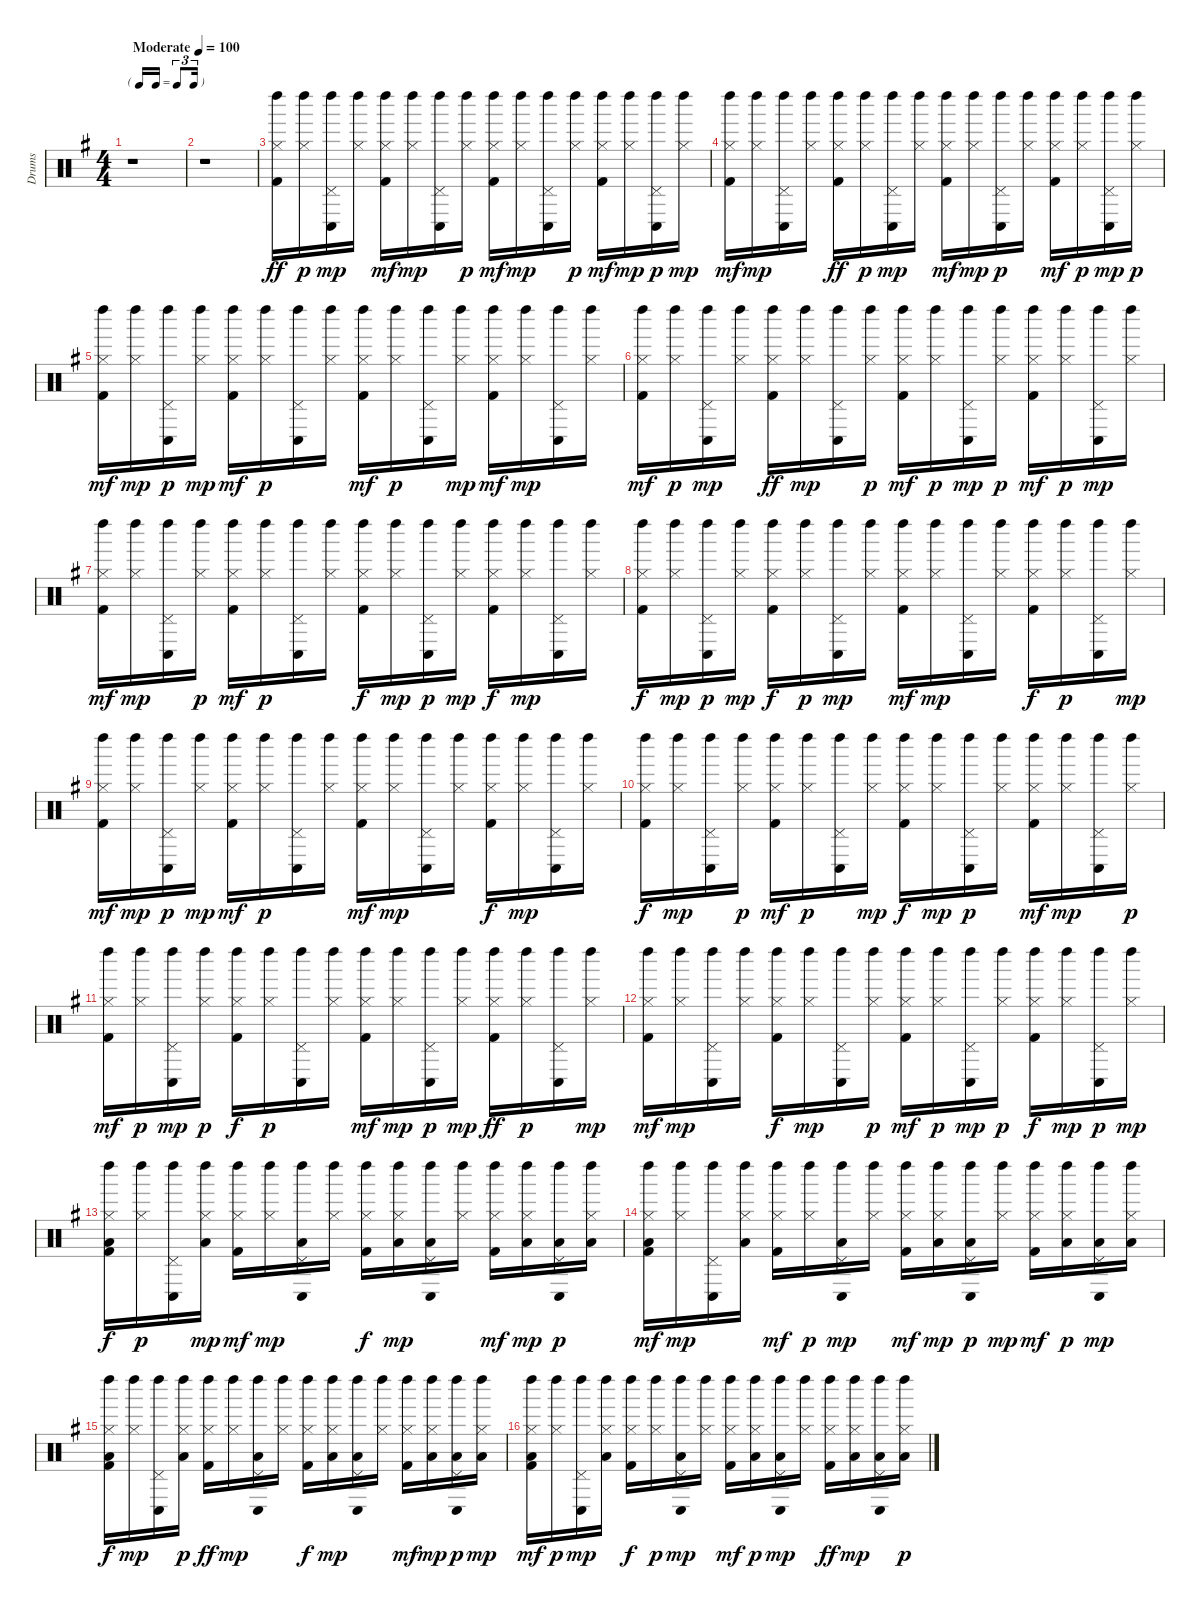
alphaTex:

\track ("Drums" "Drums") {instrument percussion}
\staff {score}
\articulation defaults
\ts (4 4)
\tf triplet16th
\tempo (100 "Moderate")
\clef neutral
\ks g
r.1{dy ff} |
r.1 |
("Kick (hit) 2" "Hi-Hat (closed)" "Left Maraca (hit)").16 ("Hi-Hat (closed)" "Left Maraca (hit)").16{dy p} ("Pedal Hi-Hat (hit)" "Conga low (hit)" "Left Maraca (hit)").16{dy mp} ("Hi-Hat (closed)" "Left Maraca (hit)").16 ("Kick (hit) 2" "Hi-Hat (closed)" "Left Maraca (hit)").16{dy mf} ("Hi-Hat (closed)" "Left Maraca (hit)").16{dy mp} ("Pedal Hi-Hat (hit)" "Conga low (hit)" "Left Maraca (hit)").16 ("Hi-Hat (closed)" "Left Maraca (hit)").16{dy p} ("Kick (hit) 2" "Hi-Hat (closed)" "Left Maraca (hit)").16{dy mf} ("Hi-Hat (closed)" "Left Maraca (hit)").16{dy mp} ("Pedal Hi-Hat (hit)" "Conga low (hit)" "Left Maraca (hit)").16 ("Hi-Hat (closed)" "Left Maraca (hit)").16{dy p} ("Kick (hit) 2" "Hi-Hat (closed)" "Left Maraca (hit)").16{dy mf} ("Hi-Hat (closed)" "Left Maraca (hit)").16{dy mp} ("Pedal Hi-Hat (hit)" "Conga low (hit)" "Left Maraca (hit)").16{dy p} ("Hi-Hat (closed)" "Left Maraca (hit)").16{dy mp} |
("Kick (hit) 2" "Hi-Hat (closed)" "Left Maraca (hit)").16{dy mf} ("Hi-Hat (closed)" "Left Maraca (hit)").16{dy mp} ("Pedal Hi-Hat (hit)" "Conga low (hit)" "Left Maraca (hit)").16 ("Hi-Hat (closed)" "Left Maraca (hit)").16 ("Kick (hit) 2" "Hi-Hat (closed)" "Left Maraca (hit)").16{dy ff} ("Hi-Hat (closed)" "Left Maraca (hit)").16{dy p} ("Pedal Hi-Hat (hit)" "Conga low (hit)" "Left Maraca (hit)").16{dy mp} ("Hi-Hat (closed)" "Left Maraca (hit)").16 ("Kick (hit) 2" "Hi-Hat (closed)" "Left Maraca (hit)").16{dy mf} ("Hi-Hat (closed)" "Left Maraca (hit)").16{dy mp} ("Pedal Hi-Hat (hit)" "Conga low (hit)" "Left Maraca (hit)").16{dy p} ("Hi-Hat (closed)" "Left Maraca (hit)").16 ("Kick (hit) 2" "Hi-Hat (closed)" "Left Maraca (hit)").16{dy mf} ("Hi-Hat (closed)" "Left Maraca (hit)").16{dy p} ("Pedal Hi-Hat (hit)" "Conga low (hit)" "Left Maraca (hit)").16{dy mp} ("Hi-Hat (closed)" "Left Maraca (hit)").16{dy p} |
("Kick (hit) 2" "Hi-Hat (closed)" "Left Maraca (hit)").16{dy mf} ("Hi-Hat (closed)" "Left Maraca (hit)").16{dy mp} ("Pedal Hi-Hat (hit)" "Conga low (hit)" "Left Maraca (hit)").16{dy p} ("Hi-Hat (closed)" "Left Maraca (hit)").16{dy mp} ("Kick (hit) 2" "Hi-Hat (closed)" "Left Maraca (hit)").16{dy mf} ("Hi-Hat (closed)" "Left Maraca (hit)").16{dy p} ("Pedal Hi-Hat (hit)" "Conga low (hit)" "Left Maraca (hit)").16 ("Hi-Hat (closed)" "Left Maraca (hit)").16 ("Kick (hit) 2" "Hi-Hat (closed)" "Left Maraca (hit)").16{dy mf} ("Hi-Hat (closed)" "Left Maraca (hit)").16{dy p} ("Pedal Hi-Hat (hit)" "Conga low (hit)" "Left Maraca (hit)").16 ("Hi-Hat (closed)" "Left Maraca (hit)").16{dy mp} ("Kick (hit) 2" "Hi-Hat (closed)" "Left Maraca (hit)").16{dy mf} ("Hi-Hat (closed)" "Left Maraca (hit)").16{dy mp} ("Pedal Hi-Hat (hit)" "Conga low (hit)" "Left Maraca (hit)").16 ("Hi-Hat (closed)" "Left Maraca (hit)").16 |
("Kick (hit) 2" "Hi-Hat (closed)" "Left Maraca (hit)").16{dy mf} ("Hi-Hat (closed)" "Left Maraca (hit)").16{dy p} ("Pedal Hi-Hat (hit)" "Conga low (hit)" "Left Maraca (hit)").16{dy mp} ("Hi-Hat (closed)" "Left Maraca (hit)").16 ("Kick (hit) 2" "Hi-Hat (closed)" "Left Maraca (hit)").16{dy ff} ("Hi-Hat (closed)" "Left Maraca (hit)").16{dy mp} ("Pedal Hi-Hat (hit)" "Conga low (hit)" "Left Maraca (hit)").16 ("Hi-Hat (closed)" "Left Maraca (hit)").16{dy p} ("Kick (hit) 2" "Hi-Hat (closed)" "Left Maraca (hit)").16{dy mf} ("Hi-Hat (closed)" "Left Maraca (hit)").16{dy p} ("Pedal Hi-Hat (hit)" "Conga low (hit)" "Left Maraca (hit)").16{dy mp} ("Hi-Hat (closed)" "Left Maraca (hit)").16{dy p} ("Kick (hit) 2" "Hi-Hat (closed)" "Left Maraca (hit)").16{dy mf} ("Hi-Hat (closed)" "Left Maraca (hit)").16{dy p} ("Pedal Hi-Hat (hit)" "Conga low (hit)" "Left Maraca (hit)").16{dy mp} ("Hi-Hat (closed)" "Left Maraca (hit)").16 |
("Kick (hit) 2" "Hi-Hat (closed)" "Left Maraca (hit)").16{dy mf} ("Hi-Hat (closed)" "Left Maraca (hit)").16{dy mp} ("Pedal Hi-Hat (hit)" "Conga low (hit)" "Left Maraca (hit)").16 ("Hi-Hat (closed)" "Left Maraca (hit)").16{dy p} ("Kick (hit) 2" "Hi-Hat (closed)" "Left Maraca (hit)").16{dy mf} ("Hi-Hat (closed)" "Left Maraca (hit)").16{dy p} ("Pedal Hi-Hat (hit)" "Conga low (hit)" "Left Maraca (hit)").16 ("Hi-Hat (closed)" "Left Maraca (hit)").16 ("Kick (hit) 2" "Hi-Hat (closed)" "Left Maraca (hit)").16{dy f} ("Hi-Hat (closed)" "Left Maraca (hit)").16{dy mp} ("Pedal Hi-Hat (hit)" "Conga low (hit)" "Left Maraca (hit)").16{dy p} ("Hi-Hat (closed)" "Left Maraca (hit)").16{dy mp} ("Kick (hit) 2" "Hi-Hat (closed)" "Left Maraca (hit)").16{dy f} ("Hi-Hat (closed)" "Left Maraca (hit)").16{dy mp} ("Pedal Hi-Hat (hit)" "Conga low (hit)" "Left Maraca (hit)").16 ("Hi-Hat (closed)" "Left Maraca (hit)").16 |
("Kick (hit) 2" "Hi-Hat (closed)" "Left Maraca (hit)").16{dy f} ("Hi-Hat (closed)" "Left Maraca (hit)").16{dy mp} ("Pedal Hi-Hat (hit)" "Conga low (hit)" "Left Maraca (hit)").16{dy p} ("Hi-Hat (closed)" "Left Maraca (hit)").16{dy mp} ("Kick (hit) 2" "Hi-Hat (closed)" "Left Maraca (hit)").16{dy f} ("Hi-Hat (closed)" "Left Maraca (hit)").16{dy p} ("Pedal Hi-Hat (hit)" "Conga low (hit)" "Left Maraca (hit)").16{dy mp} ("Hi-Hat (closed)" "Left Maraca (hit)").16 ("Kick (hit) 2" "Hi-Hat (closed)" "Left Maraca (hit)").16{dy mf} ("Hi-Hat (closed)" "Left Maraca (hit)").16{dy mp} ("Pedal Hi-Hat (hit)" "Conga low (hit)" "Left Maraca (hit)").16 ("Hi-Hat (closed)" "Left Maraca (hit)").16 ("Kick (hit) 2" "Hi-Hat (closed)" "Left Maraca (hit)").16{dy f} ("Hi-Hat (closed)" "Left Maraca (hit)").16{dy p} ("Pedal Hi-Hat (hit)" "Conga low (hit)" "Left Maraca (hit)").16 ("Hi-Hat (closed)" "Left Maraca (hit)").16{dy mp} |
("Kick (hit) 2" "Hi-Hat (closed)" "Left Maraca (hit)").16{dy mf} ("Hi-Hat (closed)" "Left Maraca (hit)").16{dy mp} ("Pedal Hi-Hat (hit)" "Conga low (hit)" "Left Maraca (hit)").16{dy p} ("Hi-Hat (closed)" "Left Maraca (hit)").16{dy mp} ("Kick (hit) 2" "Hi-Hat (closed)" "Left Maraca (hit)").16{dy mf} ("Hi-Hat (closed)" "Left Maraca (hit)").16{dy p} ("Pedal Hi-Hat (hit)" "Conga low (hit)" "Left Maraca (hit)").16 ("Hi-Hat (closed)" "Left Maraca (hit)").16 ("Kick (hit) 2" "Hi-Hat (closed)" "Left Maraca (hit)").16{dy mf} ("Hi-Hat (closed)" "Left Maraca (hit)").16{dy mp} ("Pedal Hi-Hat (hit)" "Conga low (hit)" "Left Maraca (hit)").16 ("Hi-Hat (closed)" "Left Maraca (hit)").16 ("Kick (hit) 2" "Hi-Hat (closed)" "Left Maraca (hit)").16{dy f} ("Hi-Hat (closed)" "Left Maraca (hit)").16{dy mp} ("Pedal Hi-Hat (hit)" "Conga low (hit)" "Left Maraca (hit)").16 ("Hi-Hat (closed)" "Left Maraca (hit)").16 |
("Kick (hit) 2" "Hi-Hat (closed)" "Left Maraca (hit)").16{dy f} ("Hi-Hat (closed)" "Left Maraca (hit)").16{dy mp} ("Pedal Hi-Hat (hit)" "Conga low (hit)" "Left Maraca (hit)").16 ("Hi-Hat (closed)" "Left Maraca (hit)").16{dy p} ("Kick (hit) 2" "Hi-Hat (closed)" "Left Maraca (hit)").16{dy mf} ("Hi-Hat (closed)" "Left Maraca (hit)").16{dy p} ("Pedal Hi-Hat (hit)" "Conga low (hit)" "Left Maraca (hit)").16 ("Hi-Hat (closed)" "Left Maraca (hit)").16{dy mp} ("Kick (hit) 2" "Hi-Hat (closed)" "Left Maraca (hit)").16{dy f} ("Hi-Hat (closed)" "Left Maraca (hit)").16{dy mp} ("Pedal Hi-Hat (hit)" "Conga low (hit)" "Left Maraca (hit)").16{dy p} ("Hi-Hat (closed)" "Left Maraca (hit)").16 ("Kick (hit) 2" "Hi-Hat (closed)" "Left Maraca (hit)").16{dy mf} ("Hi-Hat (closed)" "Left Maraca (hit)").16{dy mp} ("Pedal Hi-Hat (hit)" "Conga low (hit)" "Left Maraca (hit)").16 ("Hi-Hat (closed)" "Left Maraca (hit)").16{dy p} |
("Kick (hit) 2" "Hi-Hat (closed)" "Left Maraca (hit)").16{dy mf} ("Hi-Hat (closed)" "Left Maraca (hit)").16{dy p} ("Pedal Hi-Hat (hit)" "Conga low (hit)" "Left Maraca (hit)").16{dy mp} ("Hi-Hat (closed)" "Left Maraca (hit)").16{dy p} ("Kick (hit) 2" "Hi-Hat (closed)" "Left Maraca (hit)").16{dy f} ("Hi-Hat (closed)" "Left Maraca (hit)").16{dy p} ("Pedal Hi-Hat (hit)" "Conga low (hit)" "Left Maraca (hit)").16 ("Hi-Hat (closed)" "Left Maraca (hit)").16 ("Kick (hit) 2" "Hi-Hat (closed)" "Left Maraca (hit)").16{dy mf} ("Hi-Hat (closed)" "Left Maraca (hit)").16{dy mp} ("Pedal Hi-Hat (hit)" "Conga low (hit)" "Left Maraca (hit)").16{dy p} ("Hi-Hat (closed)" "Left Maraca (hit)").16{dy mp} ("Kick (hit) 2" "Hi-Hat (closed)" "Left Maraca (hit)").16{dy ff} ("Hi-Hat (closed)" "Left Maraca (hit)").16{dy p} ("Pedal Hi-Hat (hit)" "Conga low (hit)" "Left Maraca (hit)").16 ("Hi-Hat (closed)" "Left Maraca (hit)").16{dy mp} |
("Kick (hit) 2" "Hi-Hat (closed)" "Left Maraca (hit)").16{dy mf} ("Hi-Hat (closed)" "Left Maraca (hit)").16{dy mp} ("Pedal Hi-Hat (hit)" "Conga low (hit)" "Left Maraca (hit)").16 ("Hi-Hat (closed)" "Left Maraca (hit)").16 ("Kick (hit) 2" "Hi-Hat (closed)" "Left Maraca (hit)").16{dy f} ("Hi-Hat (closed)" "Left Maraca (hit)").16{dy mp} ("Pedal Hi-Hat (hit)" "Conga low (hit)" "Left Maraca (hit)").16 ("Hi-Hat (closed)" "Left Maraca (hit)").16{dy p} ("Kick (hit) 2" "Hi-Hat (closed)" "Left Maraca (hit)").16{dy mf} ("Hi-Hat (closed)" "Left Maraca (hit)").16{dy p} ("Pedal Hi-Hat (hit)" "Conga low (hit)" "Left Maraca (hit)").16{dy mp} ("Hi-Hat (closed)" "Left Maraca (hit)").16{dy p} ("Kick (hit) 2" "Hi-Hat (closed)" "Left Maraca (hit)").16{dy f} ("Hi-Hat (closed)" "Left Maraca (hit)").16{dy mp} ("Pedal Hi-Hat (hit)" "Conga low (hit)" "Left Maraca (hit)").16{dy p} ("Hi-Hat (closed)" "Left Maraca (hit)").16{dy mp} |
("Kick (hit) 2" "Low Floor Tom (hit)" "Hi-Hat (closed)" "Left Maraca (hit)").16{dy f} ("Hi-Hat (closed)" "Left Maraca (hit)").16{dy p} ("Pedal Hi-Hat (hit)" "Conga low (hit)" "Left Maraca (hit)").16 ("Low Floor Tom (hit)" "Hi-Hat (closed)" "Left Maraca (hit)").16{dy mp} ("Kick (hit) 2" "Hi-Hat (closed)" "Left Maraca (hit)").16{dy mf} ("Hi-Hat (closed)" "Left Maraca (hit)").16{dy mp} ("Low Floor Tom (hit)" "Pedal Hi-Hat (hit)" "Conga low (hit)" "Left Maraca (hit)").16 ("Hi-Hat (closed)" "Left Maraca (hit)").16 ("Kick (hit) 2" "Hi-Hat (closed)" "Left Maraca (hit)").16{dy f} ("Low Floor Tom (hit)" "Hi-Hat (closed)" "Left Maraca (hit)").16{dy mp} ("Low Floor Tom (hit)" "Pedal Hi-Hat (hit)" "Conga low (hit)" "Left Maraca (hit)").16 ("Hi-Hat (closed)" "Left Maraca (hit)").16 ("Kick (hit) 2" "Hi-Hat (closed)" "Left Maraca (hit)").16{dy mf} ("Low Floor Tom (hit)" "Hi-Hat (closed)" "Left Maraca (hit)").16{dy mp} ("Low Floor Tom (hit)" "Pedal Hi-Hat (hit)" "Conga low (hit)" "Left Maraca (hit)").16{dy p} ("Low Floor Tom (hit)" "Hi-Hat (closed)" "Left Maraca (hit)").16 |
("Kick (hit) 2" "Low Floor Tom (hit)" "Hi-Hat (closed)" "Left Maraca (hit)").16{dy mf} ("Hi-Hat (closed)" "Left Maraca (hit)").16{dy mp} ("Pedal Hi-Hat (hit)" "Conga low (hit)" "Left Maraca (hit)").16 ("Low Floor Tom (hit)" "Hi-Hat (closed)" "Left Maraca (hit)").16 ("Kick (hit) 2" "Hi-Hat (closed)" "Left Maraca (hit)").16{dy mf} ("Hi-Hat (closed)" "Left Maraca (hit)").16{dy p} ("Low Floor Tom (hit)" "Pedal Hi-Hat (hit)" "Conga low (hit)" "Left Maraca (hit)").16{dy mp} ("Hi-Hat (closed)" "Left Maraca (hit)").16 ("Kick (hit) 2" "Hi-Hat (closed)" "Left Maraca (hit)").16{dy mf} ("Low Floor Tom (hit)" "Hi-Hat (closed)" "Left Maraca (hit)").16{dy mp} ("Low Floor Tom (hit)" "Pedal Hi-Hat (hit)" "Conga low (hit)" "Left Maraca (hit)").16{dy p} ("Hi-Hat (closed)" "Left Maraca (hit)").16{dy mp} ("Kick (hit) 2" "Hi-Hat (closed)" "Left Maraca (hit)").16{dy mf} ("Low Floor Tom (hit)" "Hi-Hat (closed)" "Left Maraca (hit)").16{dy p} ("Low Floor Tom (hit)" "Pedal Hi-Hat (hit)" "Conga low (hit)" "Left Maraca (hit)").16{dy mp} ("Low Floor Tom (hit)" "Hi-Hat (closed)" "Left Maraca (hit)").16 |
("Kick (hit) 2" "Low Floor Tom (hit)" "Hi-Hat (closed)" "Left Maraca (hit)").16{dy f} ("Hi-Hat (closed)" "Left Maraca (hit)").16{dy mp} ("Pedal Hi-Hat (hit)" "Conga low (hit)" "Left Maraca (hit)").16 ("Low Floor Tom (hit)" "Hi-Hat (closed)" "Left Maraca (hit)").16{dy p} ("Kick (hit) 2" "Hi-Hat (closed)" "Left Maraca (hit)").16{dy ff} ("Hi-Hat (closed)" "Left Maraca (hit)").16{dy mp} ("Low Floor Tom (hit)" "Pedal Hi-Hat (hit)" "Conga low (hit)" "Left Maraca (hit)").16 ("Hi-Hat (closed)" "Left Maraca (hit)").16 ("Kick (hit) 2" "Hi-Hat (closed)" "Left Maraca (hit)").16{dy f} ("Low Floor Tom (hit)" "Hi-Hat (closed)" "Left Maraca (hit)").16{dy mp} ("Low Floor Tom (hit)" "Pedal Hi-Hat (hit)" "Conga low (hit)" "Left Maraca (hit)").16 ("Hi-Hat (closed)" "Left Maraca (hit)").16 ("Kick (hit) 2" "Hi-Hat (closed)" "Left Maraca (hit)").16{dy mf} ("Low Floor Tom (hit)" "Hi-Hat (closed)" "Left Maraca (hit)").16{dy mp} ("Low Floor Tom (hit)" "Pedal Hi-Hat (hit)" "Conga low (hit)" "Left Maraca (hit)").16{dy p} ("Low Floor Tom (hit)" "Hi-Hat (closed)" "Left Maraca (hit)").16{dy mp} |
("Kick (hit) 2" "Low Floor Tom (hit)" "Hi-Hat (closed)" "Left Maraca (hit)").16{dy mf} ("Hi-Hat (closed)" "Left Maraca (hit)").16{dy p} ("Pedal Hi-Hat (hit)" "Conga low (hit)" "Left Maraca (hit)").16{dy mp} ("Low Floor Tom (hit)" "Hi-Hat (closed)" "Left Maraca (hit)").16 ("Kick (hit) 2" "Hi-Hat (closed)" "Left Maraca (hit)").16{dy f} ("Hi-Hat (closed)" "Left Maraca (hit)").16{dy p} ("Low Floor Tom (hit)" "Pedal Hi-Hat (hit)" "Conga low (hit)" "Left Maraca (hit)").16{dy mp} ("Hi-Hat (closed)" "Left Maraca (hit)").16 ("Kick (hit) 2" "Hi-Hat (closed)" "Left Maraca (hit)").16{dy mf} ("Low Floor Tom (hit)" "Hi-Hat (closed)" "Left Maraca (hit)").16{dy p} ("Low Floor Tom (hit)" "Pedal Hi-Hat (hit)" "Conga low (hit)" "Left Maraca (hit)").16{dy mp} ("Hi-Hat (closed)" "Left Maraca (hit)").16 ("Kick (hit) 2" "Hi-Hat (closed)" "Left Maraca (hit)").16{dy ff} ("Low Floor Tom (hit)" "Hi-Hat (closed)" "Left Maraca (hit)").16{dy mp} ("Low Floor Tom (hit)" "Pedal Hi-Hat (hit)" "Conga low (hit)" "Left Maraca (hit)").16 ("Low Floor Tom (hit)" "Hi-Hat (closed)" "Left Maraca (hit)").16{dy p}
